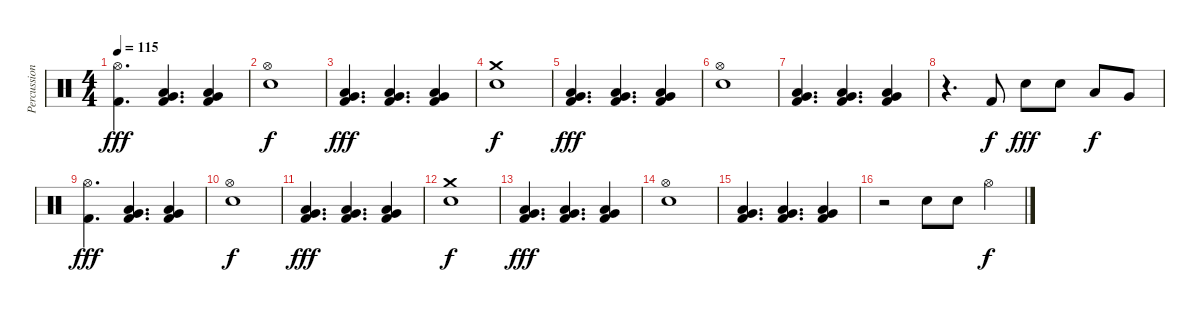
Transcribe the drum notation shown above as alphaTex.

\track ("Percussion" "Percussion") {instrument percussion}
\staff {score}
\articulation defaults
\ts (4 4)
\tempo 115
\clef neutral
\ks c
("Hi-Hat (open)" "Kick (hit) 2").4{d dy fff} ("Very Low Tom (hit)" "Low Floor Tom (hit)" "Kick (hit) 2").4{d} ("Very Low Tom (hit)" "Low Floor Tom (hit)" "Kick (hit) 2").4 |
("Hi-Hat (open)" "Snare (hit) 2").1{dy f} |
("Very Low Tom (hit)" "Low Floor Tom (hit)" "Kick (hit) 2").4{d dy fff} ("Very Low Tom (hit)" "Low Floor Tom (hit)" "Kick (hit) 2").4{d} ("Very Low Tom (hit)" "Low Floor Tom (hit)" "Kick (hit) 2").4 |
("Crash medium (hit)" "Snare (hit) 2").1{dy f} |
("Very Low Tom (hit)" "Low Floor Tom (hit)" "Kick (hit) 2").4{d dy fff} ("Very Low Tom (hit)" "Low Floor Tom (hit)" "Kick (hit) 2").4{d} ("Very Low Tom (hit)" "Low Floor Tom (hit)" "Kick (hit) 2").4 |
("Hi-Hat (open)" "Snare (hit) 2").1 |
("Very Low Tom (hit)" "Low Floor Tom (hit)" "Kick (hit) 2").4{d} ("Very Low Tom (hit)" "Low Floor Tom (hit)" "Kick (hit) 2").4{d} ("Very Low Tom (hit)" "Low Floor Tom (hit)" "Kick (hit) 2").4 |
r.4{d} "Kick (hit) 2".8{dy f} "Snare (hit) 2".8{dy fff} "Snare (hit) 2".8 "Low Tom (hit)".8{dy f} "Very Low Tom (hit)".8 |
("Hi-Hat (open)" "Kick (hit) 2").4{d dy fff} ("Very Low Tom (hit)" "Low Floor Tom (hit)" "Kick (hit) 2").4{d} ("Very Low Tom (hit)" "Low Floor Tom (hit)" "Kick (hit) 2").4 |
("Hi-Hat (open)" "Snare (hit) 2").1{dy f} |
("Very Low Tom (hit)" "Low Floor Tom (hit)" "Kick (hit) 2").4{d dy fff} ("Very Low Tom (hit)" "Low Floor Tom (hit)" "Kick (hit) 2").4{d} ("Very Low Tom (hit)" "Low Floor Tom (hit)" "Kick (hit) 2").4 |
("Crash medium (hit)" "Snare (hit) 2").1{dy f} |
("Very Low Tom (hit)" "Low Floor Tom (hit)" "Kick (hit) 2").4{d dy fff} ("Very Low Tom (hit)" "Low Floor Tom (hit)" "Kick (hit) 2").4{d} ("Very Low Tom (hit)" "Low Floor Tom (hit)" "Kick (hit) 2").4 |
("Hi-Hat (open)" "Snare (hit) 2").1 |
("Very Low Tom (hit)" "Low Floor Tom (hit)" "Kick (hit) 2").4{d} ("Very Low Tom (hit)" "Low Floor Tom (hit)" "Kick (hit) 2").4{d} ("Very Low Tom (hit)" "Low Floor Tom (hit)" "Kick (hit) 2").4 |
r.2 "Snare (hit) 2".8 "Snare (hit) 2".8 "Hi-Hat (open)".4{dy f}
